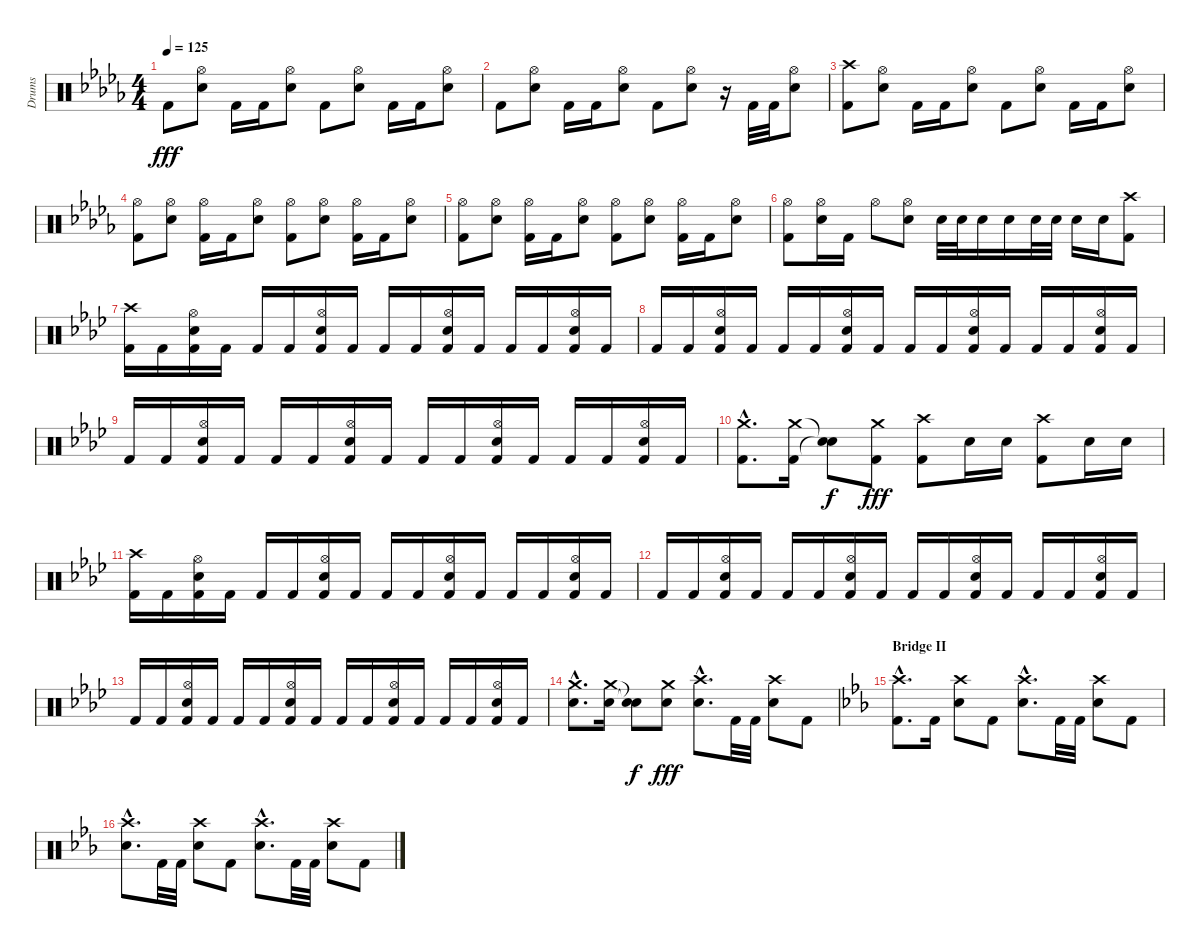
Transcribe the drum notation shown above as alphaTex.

\track ("Drums" "Drums") {instrument percussion}
\staff {score}
\articulation defaults
\ts (4 4)
\tempo 125
\clef neutral
\ks bbminor "Kick (hit) 2".8{dy fff}
("Hi-Hat (open)" "Snare (hit) 2").8 "Kick (hit) 2".16 "Kick (hit) 2".16 ("Hi-Hat (open)" "Snare (hit) 2").8 "Kick (hit) 2".8 ("Hi-Hat (open)" "Snare (hit) 2").8 "Kick (hit) 2".16 "Kick (hit) 2".16 ("Hi-Hat (open)" "Snare (hit) 2").8 |
"Kick (hit) 2".8 ("Hi-Hat (open)" "Snare (hit) 2").8 "Kick (hit) 2".16 "Kick (hit) 2".16 ("Hi-Hat (open)" "Snare (hit) 2").8 "Kick (hit) 2".8 ("Hi-Hat (open)" "Snare (hit) 2").8 r.16 "Kick (hit) 2".32 "Kick (hit) 2".32 ("Hi-Hat (open)" "Snare (hit) 2").8 |
("Crash high (hit)" "Kick (hit) 2").8 ("Hi-Hat (open)" "Snare (hit) 2").8 "Kick (hit) 2".16 "Kick (hit) 2".16 ("Hi-Hat (open)" "Snare (hit) 2").8 "Kick (hit) 2".8 ("Hi-Hat (open)" "Snare (hit) 2").8 "Kick (hit) 2".16 "Kick (hit) 2".16 ("Hi-Hat (open)" "Snare (hit) 2").8 |
("Hi-Hat (open)" "Kick (hit) 2").8 ("Hi-Hat (open)" "Snare (hit) 2").8 ("Hi-Hat (open)" "Kick (hit) 2").16 "Kick (hit) 2".16 ("Hi-Hat (open)" "Snare (hit) 2").8 ("Hi-Hat (open)" "Kick (hit) 2").8 ("Hi-Hat (open)" "Snare (hit) 2").8 ("Hi-Hat (open)" "Kick (hit) 2").16 "Kick (hit) 2".16 ("Hi-Hat (open)" "Snare (hit) 2").8 |
("Hi-Hat (open)" "Kick (hit) 2").8 ("Hi-Hat (open)" "Snare (hit) 2").8 ("Hi-Hat (open)" "Kick (hit) 2").16 "Kick (hit) 2".16 ("Hi-Hat (open)" "Snare (hit) 2").8 ("Hi-Hat (open)" "Kick (hit) 2").8 ("Hi-Hat (open)" "Snare (hit) 2").8 ("Hi-Hat (open)" "Kick (hit) 2").16 "Kick (hit) 2".16 ("Hi-Hat (open)" "Snare (hit) 2").8 |
("Hi-Hat (open)" "Kick (hit) 2").8 ("Hi-Hat (open)" "Snare (hit) 2").16 "Kick (hit) 2".16 "Hi-Hat (open)".8 ("Hi-Hat (open)" "Snare (hit) 2").8 "Snare (hit) 2".32 "Snare (hit) 2".32 "Snare (hit) 2".16 "Snare (hit) 2".16 "Snare (hit) 2".32 "Snare (hit) 2".32 "Snare (hit) 2".16 "Snare (hit) 2".16 ("Crash high (hit)" "Kick (hit) 2").8 |
\ks fminor
("Crash high (hit)" "Kick (hit) 2").16 "Kick (hit) 2".16 ("Hi-Hat (open)" "Snare (hit) 2" "Kick (hit) 2").16 "Kick (hit) 2".16 "Kick (hit) 2".16 "Kick (hit) 2".16 ("Hi-Hat (open)" "Snare (hit) 2" "Kick (hit) 2").16 "Kick (hit) 2".16 "Kick (hit) 2".16 "Kick (hit) 2".16 ("Hi-Hat (open)" "Snare (hit) 2" "Kick (hit) 2").16 "Kick (hit) 2".16 "Kick (hit) 2".16 "Kick (hit) 2".16 ("Hi-Hat (open)" "Snare (hit) 2" "Kick (hit) 2").16 "Kick (hit) 2".16 |
"Kick (hit) 2".16 "Kick (hit) 2".16 ("Hi-Hat (open)" "Snare (hit) 2" "Kick (hit) 2").16 "Kick (hit) 2".16 "Kick (hit) 2".16 "Kick (hit) 2".16 ("Hi-Hat (open)" "Snare (hit) 2" "Kick (hit) 2").16 "Kick (hit) 2".16 "Kick (hit) 2".16 "Kick (hit) 2".16 ("Hi-Hat (open)" "Snare (hit) 2" "Kick (hit) 2").16 "Kick (hit) 2".16 "Kick (hit) 2".16 "Kick (hit) 2".16 ("Hi-Hat (open)" "Snare (hit) 2" "Kick (hit) 2").16 "Kick (hit) 2".16 |
"Kick (hit) 2".16 "Kick (hit) 2".16 ("Hi-Hat (open)" "Snare (hit) 2" "Kick (hit) 2").16 "Kick (hit) 2".16 "Kick (hit) 2".16 "Kick (hit) 2".16 ("Hi-Hat (open)" "Snare (hit) 2" "Kick (hit) 2").16 "Kick (hit) 2".16 "Kick (hit) 2".16 "Kick (hit) 2".16 ("Hi-Hat (open)" "Snare (hit) 2" "Kick (hit) 2").16 "Kick (hit) 2".16 "Kick (hit) 2".16 "Kick (hit) 2".16 ("Hi-Hat (open)" "Snare (hit) 2" "Kick (hit) 2").16 "Kick (hit) 2".16 |
("Crash medium (hit)"{hac} "Kick (hit) 2"{hac}).8{d} ("Crash medium (hit)" "Kick (hit) 2").16 ("Snare (hit)"{t} "Snare (hit)"{t}).8{dy f} ("Crash medium (hit)" "Kick (hit) 2").8{dy fff} ("Crash high (hit)" "Kick (hit) 2").8 "Snare (hit) 2".16 "Snare (hit) 2".16 ("Crash high (hit)" "Kick (hit) 2").8 "Snare (hit) 2".16 "Snare (hit) 2".16 |
("Crash high (hit)" "Kick (hit) 2").16 "Kick (hit) 2".16 ("Hi-Hat (open)" "Snare (hit) 2" "Kick (hit) 2").16 "Kick (hit) 2".16 "Kick (hit) 2".16 "Kick (hit) 2".16 ("Hi-Hat (open)" "Snare (hit) 2" "Kick (hit) 2").16 "Kick (hit) 2".16 "Kick (hit) 2".16 "Kick (hit) 2".16 ("Hi-Hat (open)" "Snare (hit) 2" "Kick (hit) 2").16 "Kick (hit) 2".16 "Kick (hit) 2".16 "Kick (hit) 2".16 ("Hi-Hat (open)" "Snare (hit) 2" "Kick (hit) 2").16 "Kick (hit) 2".16 |
"Kick (hit) 2".16 "Kick (hit) 2".16 ("Hi-Hat (open)" "Snare (hit) 2" "Kick (hit) 2").16 "Kick (hit) 2".16 "Kick (hit) 2".16 "Kick (hit) 2".16 ("Hi-Hat (open)" "Snare (hit) 2" "Kick (hit) 2").16 "Kick (hit) 2".16 "Kick (hit) 2".16 "Kick (hit) 2".16 ("Hi-Hat (open)" "Snare (hit) 2" "Kick (hit) 2").16 "Kick (hit) 2".16 "Kick (hit) 2".16 "Kick (hit) 2".16 ("Hi-Hat (open)" "Snare (hit) 2" "Kick (hit) 2").16 "Kick (hit) 2".16 |
"Kick (hit) 2".16 "Kick (hit) 2".16 ("Hi-Hat (open)" "Snare (hit) 2" "Kick (hit) 2").16 "Kick (hit) 2".16 "Kick (hit) 2".16 "Kick (hit) 2".16 ("Hi-Hat (open)" "Snare (hit) 2" "Kick (hit) 2").16 "Kick (hit) 2".16 "Kick (hit) 2".16 "Kick (hit) 2".16 ("Hi-Hat (open)" "Snare (hit) 2" "Kick (hit) 2").16 "Kick (hit) 2".16 "Kick (hit) 2".16 "Kick (hit) 2".16 ("Hi-Hat (open)" "Snare (hit) 2" "Kick (hit) 2").16 "Kick (hit) 2".16 |
("Crash medium (hit)"{hac} "Snare (hit) 2"{hac}).8{d} ("Crash medium (hit)" "Snare (hit) 2").16 ("Snare (hit)"{t} "Snare (hit)"{t}).8{dy f} ("Crash medium (hit)" "Snare (hit) 2").8{dy fff} ("Crash high (hit)"{hac} "Snare (hit) 2"{hac}).8{d} "Kick (hit) 2".32 "Kick (hit) 2".32 ("Crash high (hit)" "Snare (hit) 2").8 "Kick (hit) 2".8 |
\section ("" "Bridge II")
\ks cminor
("Crash high (hit)"{hac} "Kick (hit) 2"{hac}).8{d} "Kick (hit) 2".16 ("Crash high (hit)" "Snare (hit) 2").8 "Kick (hit) 2".8 ("Crash high (hit)"{hac} "Snare (hit) 2"{hac}).8{d} "Kick (hit) 2".32 "Kick (hit) 2".32 ("Crash high (hit)" "Snare (hit) 2").8 "Kick (hit) 2".8 |
("Crash high (hit)"{hac} "Snare (hit) 2"{hac}).8{d} "Kick (hit) 2".32 "Kick (hit) 2".32 ("Crash high (hit)" "Snare (hit) 2").8 "Kick (hit) 2".8 ("Crash high (hit)"{hac} "Snare (hit) 2"{hac}).8{d} "Kick (hit) 2".32 "Kick (hit) 2".32 ("Crash high (hit)" "Snare (hit) 2").8 "Kick (hit) 2".8
